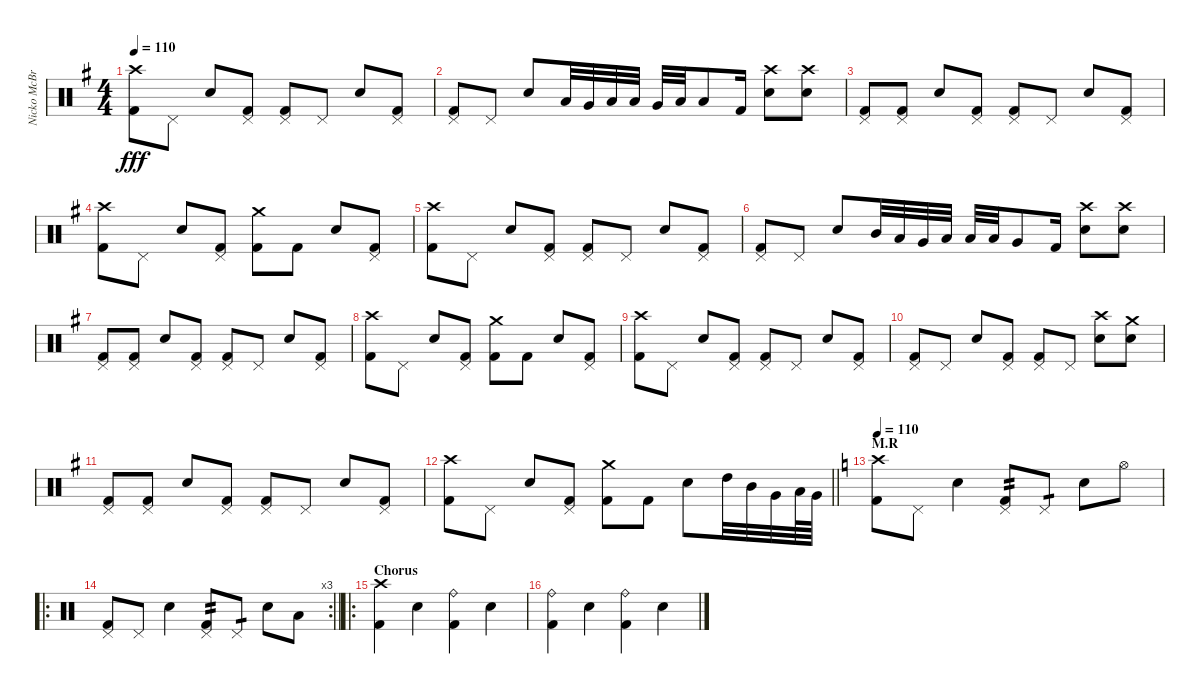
\track ("Nicko McBrain" "Nicko McBr") {instrument percussion}
\staff {score}
\articulation defaults
\ts (4 4)
\tempo 110
\clef neutral
\ks g
("Crash high (hit)" "Kick (hit) 2").8{dy fff} "Pedal Hi-Hat (hit)".8 "Electric Snare (hit)".8 ("Pedal Hi-Hat (hit)" "Kick (hit) 2").8 ("Pedal Hi-Hat (hit)" "Kick (hit) 2").8 "Pedal Hi-Hat (hit)".8 "Electric Snare (hit)".8 ("Pedal Hi-Hat (hit)" "Kick (hit) 2").8 |
("Pedal Hi-Hat (hit)" "Kick (hit) 2").8 "Pedal Hi-Hat (hit)".8 "Electric Snare (hit)".8 "Low Floor Tom (hit)".32 "Very Low Tom (hit)".32 "Low Tom (hit)".32 "Low Floor Tom (hit)".32 "Very Low Tom (hit)".32 "Low Floor Tom (hit)".32 "Low Tom (hit)".8 "Kick (hit) 2".16 ("Electric Snare (hit)" "Crash high (hit)").8 ("Electric Snare (hit)" "Crash high (hit)").8 |
("Pedal Hi-Hat (hit)" "Kick (hit) 2").8 ("Pedal Hi-Hat (hit)" "Kick (hit) 2").8 "Electric Snare (hit)".8 ("Pedal Hi-Hat (hit)" "Kick (hit) 2").8 ("Pedal Hi-Hat (hit)" "Kick (hit) 2").8 "Pedal Hi-Hat (hit)".8 "Electric Snare (hit)".8 ("Pedal Hi-Hat (hit)" "Kick (hit) 2").8 |
("Crash high (hit)" "Kick (hit) 2").8 "Pedal Hi-Hat (hit)".8 "Electric Snare (hit)".8 ("Pedal Hi-Hat (hit)" "Kick (hit) 2").8 ("Crash medium (hit)" "Kick (hit) 2").8 "Kick (hit) 2".8 "Electric Snare (hit)".8 ("Pedal Hi-Hat (hit)" "Kick (hit) 2").8 |
("Crash high (hit)" "Kick (hit) 2").8 "Pedal Hi-Hat (hit)".8 "Electric Snare (hit)".8 ("Pedal Hi-Hat (hit)" "Kick (hit) 2").8 ("Pedal Hi-Hat (hit)" "Kick (hit) 2").8 "Pedal Hi-Hat (hit)".8 "Electric Snare (hit)".8 ("Pedal Hi-Hat (hit)" "Kick (hit) 2").8 |
("Pedal Hi-Hat (hit)" "Kick (hit) 2").8 "Pedal Hi-Hat (hit)".8 "Electric Snare (hit)".8 "Mid Tom (hit)".32 "Low Tom (hit)".32 "Very Low Tom (hit)".32 "Low Floor Tom (hit)".32 "Low Tom (hit)".32 "Low Floor Tom (hit)".32 "Very Low Tom (hit)".8 "Kick (hit) 2".16 ("Electric Snare (hit)" "Crash high (hit)").8 ("Electric Snare (hit)" "Crash high (hit)").8 |
("Pedal Hi-Hat (hit)" "Kick (hit) 2").8 ("Pedal Hi-Hat (hit)" "Kick (hit) 2").8 "Electric Snare (hit)".8 ("Pedal Hi-Hat (hit)" "Kick (hit) 2").8 ("Pedal Hi-Hat (hit)" "Kick (hit) 2").8 "Pedal Hi-Hat (hit)".8 "Electric Snare (hit)".8 ("Pedal Hi-Hat (hit)" "Kick (hit) 2").8 |
("Crash high (hit)" "Kick (hit) 2").8 "Pedal Hi-Hat (hit)".8 "Electric Snare (hit)".8 ("Pedal Hi-Hat (hit)" "Kick (hit) 2").8 ("Crash medium (hit)" "Kick (hit) 2").8 "Kick (hit) 2".8 "Electric Snare (hit)".8 ("Pedal Hi-Hat (hit)" "Kick (hit) 2").8 |
("Crash high (hit)" "Kick (hit) 2").8 "Pedal Hi-Hat (hit)".8 "Electric Snare (hit)".8 ("Pedal Hi-Hat (hit)" "Kick (hit) 2").8 ("Pedal Hi-Hat (hit)" "Kick (hit) 2").8 "Pedal Hi-Hat (hit)".8 "Electric Snare (hit)".8 ("Pedal Hi-Hat (hit)" "Kick (hit) 2").8 |
("Pedal Hi-Hat (hit)" "Kick (hit) 2").8 "Pedal Hi-Hat (hit)".8 "Electric Snare (hit)".8 ("Pedal Hi-Hat (hit)" "Kick (hit) 2").8 ("Pedal Hi-Hat (hit)" "Kick (hit) 2").8 "Pedal Hi-Hat (hit)".8 ("Electric Snare (hit)" "Crash high (hit)").8 ("Electric Snare (hit)" "Crash medium (hit)").8 |
("Pedal Hi-Hat (hit)" "Kick (hit) 2").8 ("Pedal Hi-Hat (hit)" "Kick (hit) 2").8 "Electric Snare (hit)".8 ("Pedal Hi-Hat (hit)" "Kick (hit) 2").8 ("Pedal Hi-Hat (hit)" "Kick (hit) 2").8 "Pedal Hi-Hat (hit)".8 "Electric Snare (hit)".8 ("Pedal Hi-Hat (hit)" "Kick (hit) 2").8 |
\barLineRight lightlight
("Crash high (hit)" "Kick (hit) 2").8 "Pedal Hi-Hat (hit)".8 "Electric Snare (hit)".8 ("Pedal Hi-Hat (hit)" "Kick (hit) 2").8 ("Crash medium (hit)" "Kick (hit) 2").8 "Kick (hit) 2".8 "Electric Snare (hit)".8 "High Tom (hit)".32 "Mid Tom (hit)".32 "Very Low Tom (hit)".32 "Low Tom (hit)".64 "Very Low Tom (hit)".64 |
\section ("" "M.R")
\tempo 110
\ks c
("Crash high (hit)" "Kick (hit) 2").8 "Pedal Hi-Hat (hit)".8 "Electric Snare (hit)".4 ("Pedal Hi-Hat (hit)" "Kick (hit) 2").8{tp 2} "Pedal Hi-Hat (hit)".8{tp 1} "Electric Snare (hit)".8 "Hi-Hat (open)".8 |
\ro
\rc 3
\barLineRight lightlight
("Pedal Hi-Hat (hit)" "Kick (hit) 2").8 "Pedal Hi-Hat (hit)".8 "Electric Snare (hit)".4 ("Pedal Hi-Hat (hit)" "Kick (hit) 2").8{tp 2} "Pedal Hi-Hat (hit)".8{tp 1} "Electric Snare (hit)".8 "Low Floor Tom (hit)".8 |
\ro
\section ("" "Chorus")
("Crash high (hit)" "Kick (hit) 2").4 "Electric Snare (hit)".4 ("Ride (bell)" "Kick (hit) 2").4 "Electric Snare (hit)".4 |
("Ride (bell)" "Kick (hit) 2").4 "Electric Snare (hit)".4 ("Ride (bell)" "Kick (hit) 2").4 "Electric Snare (hit)".4
